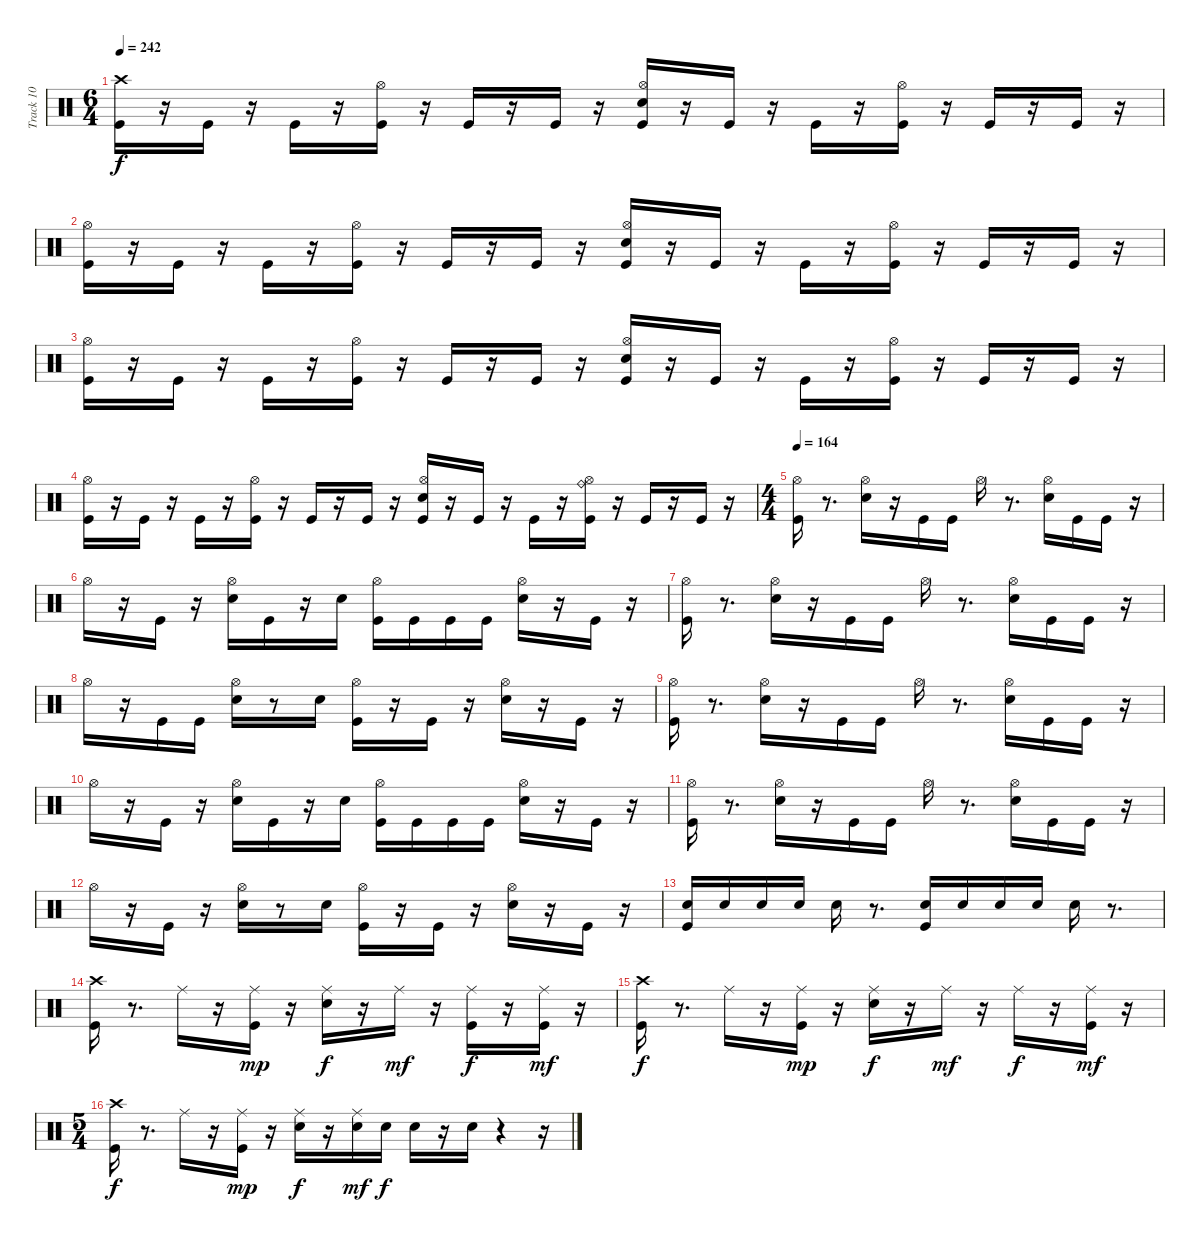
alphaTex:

\track ("Track 10" "Track 10") {instrument percussion}
\staff {score}
\articulation defaults
\ts (6 4)
\tempo 242
\clef neutral
\ks c
("Kick (hit)" "Crash high (hit)").16{dy f} r.16 "Kick (hit)".16 r.16 "Kick (hit)".16 r.16 ("Kick (hit)" "Hi-Hat (open)").16 r.16 "Kick (hit)".16 r.16 "Kick (hit)".16 r.16 ("Kick (hit)" "Snare (hit) 2" "Hi-Hat (open)").16 r.16 "Kick (hit)".16 r.16 "Kick (hit)".16 r.16 ("Kick (hit)" "Hi-Hat (open)").16 r.16 "Kick (hit)".16 r.16 "Kick (hit)".16 r.16 |
("Kick (hit)" "Hi-Hat (open)").16 r.16 "Kick (hit)".16 r.16 "Kick (hit)".16 r.16 ("Kick (hit)" "Hi-Hat (open)").16 r.16 "Kick (hit)".16 r.16 "Kick (hit)".16 r.16 ("Kick (hit)" "Snare (hit) 2" "Hi-Hat (open)").16 r.16 "Kick (hit)".16 r.16 "Kick (hit)".16 r.16 ("Kick (hit)" "Hi-Hat (open)").16 r.16 "Kick (hit)".16 r.16 "Kick (hit)".16 r.16 |
("Kick (hit)" "Hi-Hat (open)").16 r.16 "Kick (hit)".16 r.16 "Kick (hit)".16 r.16 ("Kick (hit)" "Hi-Hat (open)").16 r.16 "Kick (hit)".16 r.16 "Kick (hit)".16 r.16 ("Kick (hit)" "Snare (hit) 2" "Hi-Hat (open)").16 r.16 "Kick (hit)".16 r.16 "Kick (hit)".16 r.16 ("Kick (hit)" "Hi-Hat (open)").16 r.16 "Kick (hit)".16 r.16 "Kick (hit)".16 r.16 |
("Kick (hit)" "Hi-Hat (open)").16 r.16 "Kick (hit)".16 r.16 "Kick (hit)".16 r.16 ("Kick (hit)" "Hi-Hat (open)").16 r.16 "Kick (hit)".16 r.16 "Kick (hit)".16 r.16 ("Kick (hit)" "Snare (hit) 2" "Hi-Hat (open)").16 r.16 "Kick (hit)".16 r.16 "Kick (hit)".16 r.16 ("Kick (hit)" "Hi-Hat (open)" "Ride (bell)").16 r.16 "Kick (hit)".16 r.16 "Kick (hit)".16 r.16 |
\ts (4 4)
\tempo 164
("Kick (hit)" "Hi-Hat (open)").16 r.8{d} ("Snare (hit) 2" "Hi-Hat (open)").16 r.16 "Kick (hit)".16 "Kick (hit)".16 "Hi-Hat (open)".16 r.8{d} ("Snare (hit) 2" "Hi-Hat (open)").16 "Kick (hit)".16 "Kick (hit)".16 r.16 |
"Hi-Hat (open)".16 r.16 "Kick (hit)".16 r.16 ("Snare (hit) 2" "Hi-Hat (open)").16 "Kick (hit)".16 r.16 "Snare (hit) 2".16 ("Kick (hit)" "Hi-Hat (open)").16 "Kick (hit)".16 "Kick (hit)".16 "Kick (hit)".16 ("Snare (hit) 2" "Hi-Hat (open)").16 r.16 "Kick (hit)".16 r.16 |
("Kick (hit)" "Hi-Hat (open)").16 r.8{d} ("Snare (hit) 2" "Hi-Hat (open)").16 r.16 "Kick (hit)".16 "Kick (hit)".16 "Hi-Hat (open)".16 r.8{d} ("Snare (hit) 2" "Hi-Hat (open)").16 "Kick (hit)".16 "Kick (hit)".16 r.16 |
"Hi-Hat (open)".16 r.16 "Kick (hit)".16 "Kick (hit)".16 ("Snare (hit) 2" "Hi-Hat (open)").16 r.8 "Snare (hit) 2".16 ("Kick (hit)" "Hi-Hat (open)").16 r.16 "Kick (hit)".16 r.16 ("Snare (hit) 2" "Hi-Hat (open)").16 r.16 "Kick (hit)".16 r.16 |
("Kick (hit)" "Hi-Hat (open)").16 r.8{d} ("Snare (hit) 2" "Hi-Hat (open)").16 r.16 "Kick (hit)".16 "Kick (hit)".16 "Hi-Hat (open)".16 r.8{d} ("Snare (hit) 2" "Hi-Hat (open)").16 "Kick (hit)".16 "Kick (hit)".16 r.16 |
"Hi-Hat (open)".16 r.16 "Kick (hit)".16 r.16 ("Snare (hit) 2" "Hi-Hat (open)").16 "Kick (hit)".16 r.16 "Snare (hit) 2".16 ("Kick (hit)" "Hi-Hat (open)").16 "Kick (hit)".16 "Kick (hit)".16 "Kick (hit)".16 ("Snare (hit) 2" "Hi-Hat (open)").16 r.16 "Kick (hit)".16 r.16 |
("Kick (hit)" "Hi-Hat (open)").16 r.8{d} ("Snare (hit) 2" "Hi-Hat (open)").16 r.16 "Kick (hit)".16 "Kick (hit)".16 "Hi-Hat (open)".16 r.8{d} ("Snare (hit) 2" "Hi-Hat (open)").16 "Kick (hit)".16 "Kick (hit)".16 r.16 |
"Hi-Hat (open)".16 r.16 "Kick (hit)".16 r.16 ("Snare (hit) 2" "Hi-Hat (open)").16 r.8 "Snare (hit) 2".16 ("Kick (hit)" "Hi-Hat (open)").16 r.16 "Kick (hit)".16 r.16 ("Snare (hit) 2" "Hi-Hat (open)").16 r.16 "Kick (hit)".16 r.16 |
("Kick (hit)" "Snare (hit) 2").16 "Snare (hit) 2".16 "Snare (hit) 2".16 "Snare (hit) 2".16 "Snare (hit) 2".16 r.8{d} ("Kick (hit)" "Snare (hit) 2").16 "Snare (hit) 2".16 "Snare (hit) 2".16 "Snare (hit) 2".16 "Snare (hit) 2".16 r.8{d} |
("Kick (hit)" "Crash high (hit)").16 r.8{d} "Ride (middle)".16 r.16 ("Kick (hit)" "Ride (middle)").16{dy mp} r.16 ("Snare (hit) 2" "Ride (middle)").16{dy f} r.16 "Ride (middle)".16{dy mf} r.16 ("Kick (hit)" "Ride (middle)").16{dy f} r.16 ("Kick (hit)" "Ride (middle)").16{dy mf} r.16 |
("Kick (hit)" "Crash high (hit)").16{dy f} r.8{d} "Ride (middle)".16 r.16 ("Kick (hit)" "Ride (middle)").16{dy mp} r.16 ("Snare (hit) 2" "Ride (middle)").16{dy f} r.16 "Ride (middle)".16{dy mf} r.16 "Ride (middle)".16{dy f} r.16 ("Kick (hit)" "Ride (middle)").16{dy mf} r.16 |
\ts (5 4)
("Kick (hit)" "Crash high (hit)").16{dy f} r.8{d} "Ride (middle)".16 r.16 ("Kick (hit)" "Ride (middle)").16{dy mp} r.16 ("Snare (hit) 2" "Ride (middle)").16{dy f} r.16 ("Snare (hit) 2" "Ride (middle)").16{dy mf} "Snare (hit) 2".16{dy f} "Snare (hit) 2".16 r.16 "Snare (hit) 2".16 r.4 r.16
